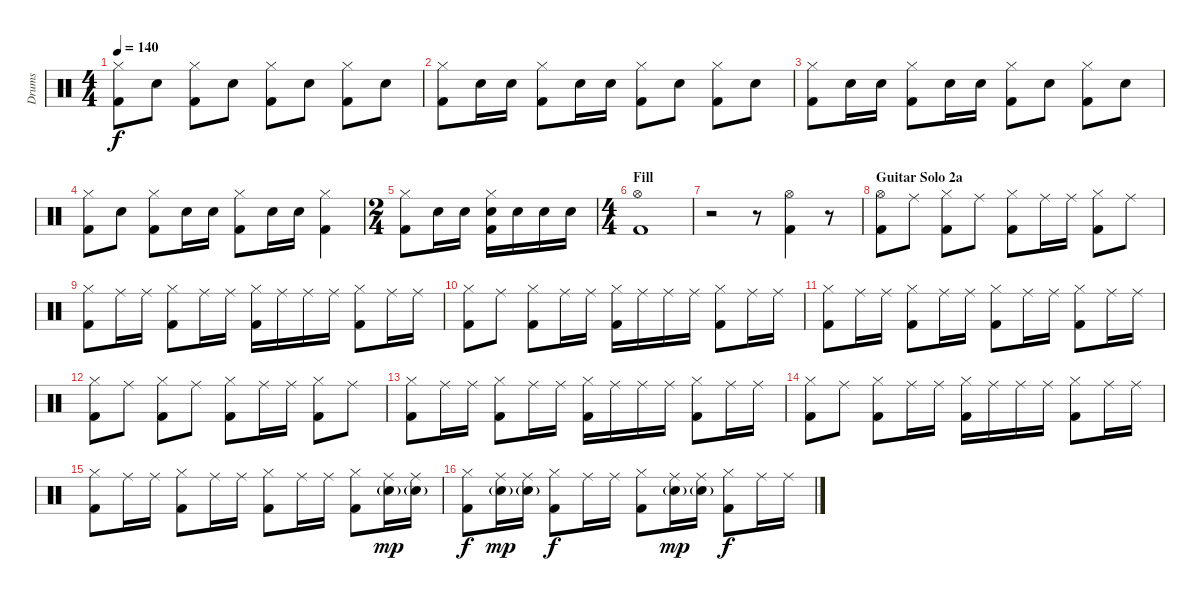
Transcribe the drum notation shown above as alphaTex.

\track ("Drums" "Drums") {instrument percussion}
\staff {score}
\articulation defaults
\ts (4 4)
\tempo 140
\clef neutral
\ks c
("Hi-Hat (closed)" "Kick (hit) 2").8{dy f} "Snare (hit) 2".8 ("Hi-Hat (closed)" "Kick (hit) 2").8 "Snare (hit) 2".8 ("Hi-Hat (closed)" "Kick (hit) 2").8 "Snare (hit) 2".8 ("Hi-Hat (closed)" "Kick (hit) 2").8 "Snare (hit) 2".8 |
("Hi-Hat (closed)" "Kick (hit) 2").8 "Snare (hit) 2".16 "Snare (hit) 2".16 ("Hi-Hat (closed)" "Kick (hit) 2").8 "Snare (hit) 2".16 "Snare (hit) 2".16 ("Hi-Hat (closed)" "Kick (hit) 2").8 "Snare (hit) 2".8 ("Hi-Hat (closed)" "Kick (hit) 2").8 "Snare (hit) 2".8 |
("Hi-Hat (closed)" "Kick (hit) 2").8 "Snare (hit) 2".16 "Snare (hit) 2".16 ("Hi-Hat (closed)" "Kick (hit) 2").8 "Snare (hit) 2".16 "Snare (hit) 2".16 ("Hi-Hat (closed)" "Kick (hit) 2").8 "Snare (hit) 2".8 ("Hi-Hat (closed)" "Kick (hit) 2").8 "Snare (hit) 2".8 |
("Hi-Hat (closed)" "Kick (hit) 2").8 "Snare (hit) 2".8 ("Hi-Hat (closed)" "Kick (hit) 2").8 "Snare (hit) 2".16 "Snare (hit) 2".16 ("Hi-Hat (closed)" "Kick (hit) 2").8 "Snare (hit) 2".16 "Snare (hit) 2".16 ("Hi-Hat (closed)" "Kick (hit) 2").4 |
\ts (2 4)
("Hi-Hat (closed)" "Kick (hit) 2").8 "Snare (hit) 2".16 "Snare (hit) 2".16 ("Hi-Hat (closed)" "Snare (hit) 2" "Kick (hit) 2").16 "Snare (hit) 2".16 "Snare (hit) 2".16 "Snare (hit) 2".16 |
\ts (4 4)
\section ("" "Fill")
("Hi-Hat (open)" "Kick (hit) 2").1 |
r.2 r.8 ("Hi-Hat (open)" "Kick (hit) 2").4 r.8 |
\section ("" "Guitar Solo 2a")
("Hi-Hat (open)" "Kick (hit) 2").8 "Ride (middle)".8 ("Hi-Hat (closed)" "Kick (hit) 2").8 "Ride (middle)".8 ("Hi-Hat (closed)" "Kick (hit) 2").8 "Ride (middle)".16 "Ride (middle)".16 ("Hi-Hat (closed)" "Kick (hit) 2").8 "Ride (middle)".8 |
("Hi-Hat (closed)" "Kick (hit) 2").8 "Ride (middle)".16 "Ride (middle)".16 ("Hi-Hat (closed)" "Kick (hit) 2").8 "Ride (middle)".16 "Ride (middle)".16 ("Hi-Hat (closed)" "Kick (hit) 2").16 "Ride (middle)".16 "Ride (middle)".16 "Ride (middle)".16 ("Hi-Hat (closed)" "Kick (hit) 2").8 "Ride (middle)".16 "Ride (middle)".16 |
("Hi-Hat (closed)" "Kick (hit) 2").8 "Ride (middle)".8 ("Hi-Hat (closed)" "Kick (hit) 2").8 "Ride (middle)".16 "Ride (middle)".16 ("Hi-Hat (closed)" "Kick (hit) 2").16 "Ride (middle)".16 "Ride (middle)".16 "Ride (middle)".16 ("Hi-Hat (closed)" "Kick (hit) 2").8 "Ride (middle)".16 "Ride (middle)".16 |
("Hi-Hat (closed)" "Kick (hit) 2").8 "Ride (middle)".16 "Ride (middle)".16 ("Hi-Hat (closed)" "Kick (hit) 2").8 "Ride (middle)".16 "Ride (middle)".16 ("Hi-Hat (closed)" "Kick (hit) 2").8 "Ride (middle)".16 "Ride (middle)".16 ("Hi-Hat (closed)" "Kick (hit) 2").8 "Ride (middle)".16 "Ride (middle)".16 |
("Hi-Hat (closed)" "Kick (hit) 2").8 "Ride (middle)".8 ("Hi-Hat (closed)" "Kick (hit) 2").8 "Ride (middle)".8 ("Hi-Hat (closed)" "Kick (hit) 2").8 "Ride (middle)".16 "Ride (middle)".16 ("Hi-Hat (closed)" "Kick (hit) 2").8 "Ride (middle)".8 |
("Hi-Hat (closed)" "Kick (hit) 2").8 "Ride (middle)".16 "Ride (middle)".16 ("Hi-Hat (closed)" "Kick (hit) 2").8 "Ride (middle)".16 "Ride (middle)".16 ("Hi-Hat (closed)" "Kick (hit) 2").16 "Ride (middle)".16 "Ride (middle)".16 "Ride (middle)".16 ("Hi-Hat (closed)" "Kick (hit) 2").8 "Ride (middle)".16 "Ride (middle)".16 |
("Hi-Hat (closed)" "Kick (hit) 2").8 "Ride (middle)".8 ("Hi-Hat (closed)" "Kick (hit) 2").8 "Ride (middle)".16 "Ride (middle)".16 ("Hi-Hat (closed)" "Kick (hit) 2").16 "Ride (middle)".16 "Ride (middle)".16 "Ride (middle)".16 ("Hi-Hat (closed)" "Kick (hit) 2").8 "Ride (middle)".16 "Ride (middle)".16 |
("Hi-Hat (closed)" "Kick (hit) 2").8 "Ride (middle)".16 "Ride (middle)".16 ("Hi-Hat (closed)" "Kick (hit) 2").8 "Ride (middle)".16 "Ride (middle)".16 ("Hi-Hat (closed)" "Kick (hit) 2").8 "Ride (middle)".16 "Ride (middle)".16 ("Hi-Hat (closed)" "Kick (hit) 2").8 ("Ride (middle)" "Snare (hit) 2"{g}).16{dy mp} ("Ride (middle)" "Snare (hit) 2"{g}).16 |
("Hi-Hat (closed)" "Kick (hit) 2").8{dy f} ("Ride (middle)" "Snare (hit) 2"{g}).16{dy mp} ("Ride (middle)" "Snare (hit) 2"{g}).16 ("Hi-Hat (closed)" "Kick (hit) 2").8{dy f} "Ride (middle)".16 "Ride (middle)".16 ("Hi-Hat (closed)" "Kick (hit) 2").8 ("Ride (middle)" "Snare (hit) 2"{g}).16{dy mp} ("Ride (middle)" "Snare (hit) 2"{g}).16 ("Hi-Hat (closed)" "Kick (hit) 2").8{dy f} "Ride (middle)".16 "Ride (middle)".16
